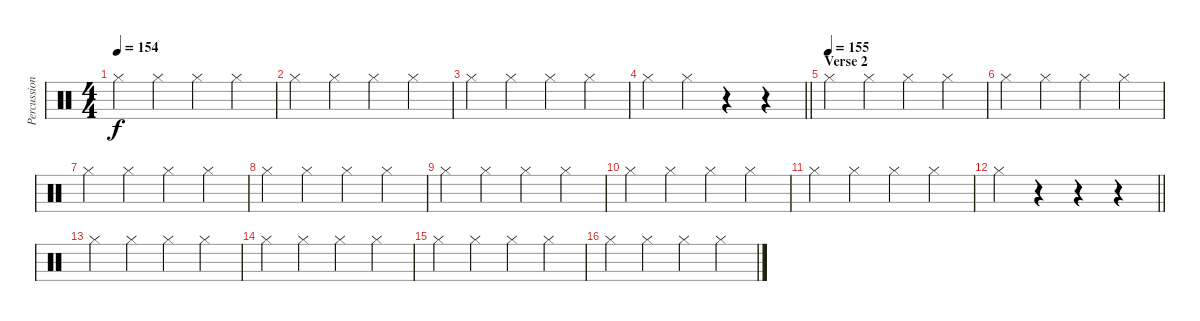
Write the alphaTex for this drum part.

\track ("Percussion" "Percussion") {instrument percussion}
\staff {score}
\articulation defaults
\ts (4 4)
\tempo 154
\clef neutral
\ks c "Hi-Hat (closed)".4{dy f} "Hi-Hat (closed)".4 "Hi-Hat (closed)".4 "Hi-Hat (closed)".4
|
"Hi-Hat (closed)".4 "Hi-Hat (closed)".4 "Hi-Hat (closed)".4 "Hi-Hat (closed)".4 |
"Hi-Hat (closed)".4 "Hi-Hat (closed)".4 "Hi-Hat (closed)".4 "Hi-Hat (closed)".4 |
\barLineRight lightlight "Hi-Hat (closed)".4 "Hi-Hat (closed)".4
r.4 r.4 |
\section ("" "Verse 2")
\tempo (155)
"Hi-Hat (closed)".4 "Hi-Hat (closed)".4 "Hi-Hat (closed)".4 "Hi-Hat (closed)".4 |
"Hi-Hat (closed)".4 "Hi-Hat (closed)".4 "Hi-Hat (closed)".4 "Hi-Hat (closed)".4 |
"Hi-Hat (closed)".4 "Hi-Hat (closed)".4 "Hi-Hat (closed)".4 "Hi-Hat (closed)".4 |
"Hi-Hat (closed)".4 "Hi-Hat (closed)".4 "Hi-Hat (closed)".4 "Hi-Hat (closed)".4 |
"Hi-Hat (closed)".4 "Hi-Hat (closed)".4 "Hi-Hat (closed)".4 "Hi-Hat (closed)".4 |
"Hi-Hat (closed)".4 "Hi-Hat (closed)".4 "Hi-Hat (closed)".4 "Hi-Hat (closed)".4 |
"Hi-Hat (closed)".4 "Hi-Hat (closed)".4 "Hi-Hat (closed)".4 "Hi-Hat (closed)".4 |
\barLineRight lightlight "Hi-Hat (closed)".4
r.4 r.4 r.4 |
"Hi-Hat (closed)".4 "Hi-Hat (closed)".4 "Hi-Hat (closed)".4 "Hi-Hat (closed)".4 |
"Hi-Hat (closed)".4 "Hi-Hat (closed)".4 "Hi-Hat (closed)".4 "Hi-Hat (closed)".4 |
"Hi-Hat (closed)".4 "Hi-Hat (closed)".4 "Hi-Hat (closed)".4 "Hi-Hat (closed)".4 |
"Hi-Hat (closed)".4 "Hi-Hat (closed)".4 "Hi-Hat (closed)".4 "Hi-Hat (closed)".4
